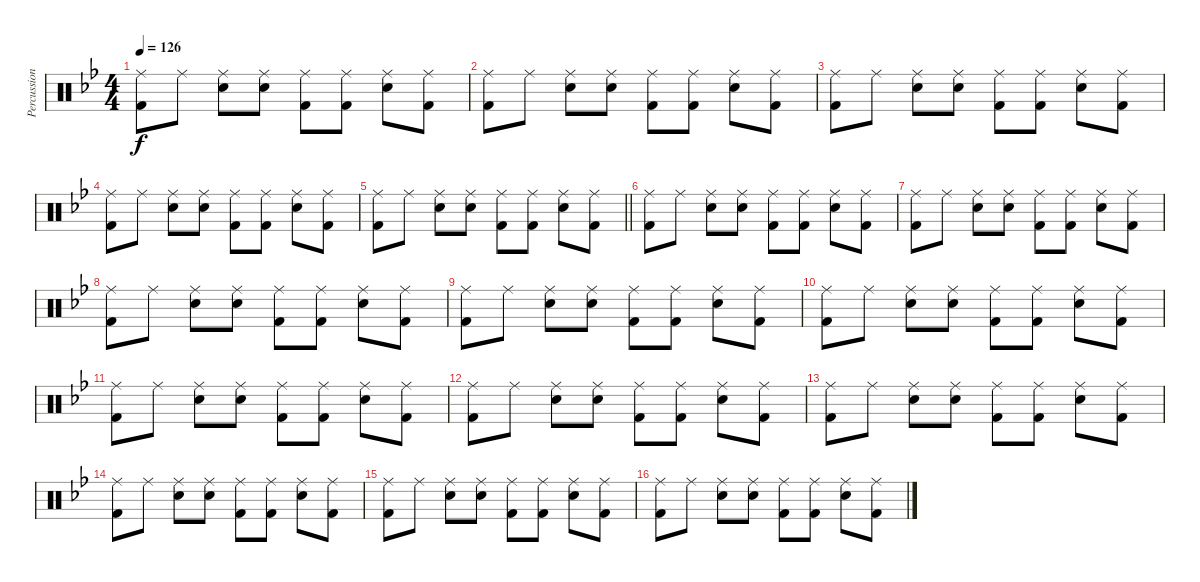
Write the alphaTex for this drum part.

\track ("Percussion" "Percussion") {instrument percussion}
\staff {score}
\articulation defaults
\ts (4 4)
\tempo 126
\clef neutral
\ks bb
("Ride (middle)" "Kick (hit) 2").8{dy f} "Ride (middle)".8 ("Ride (middle)" "Snare (hit) 2").8 ("Ride (middle)" "Snare (hit) 2").8 ("Ride (middle)" "Kick (hit) 2").8 ("Ride (middle)" "Kick (hit) 2").8 ("Ride (middle)" "Snare (hit) 2").8 ("Ride (middle)" "Kick (hit) 2").8 |
("Ride (middle)" "Kick (hit) 2").8 "Ride (middle)".8 ("Ride (middle)" "Snare (hit) 2").8 ("Ride (middle)" "Snare (hit) 2").8 ("Ride (middle)" "Kick (hit) 2").8 ("Ride (middle)" "Kick (hit) 2").8 ("Ride (middle)" "Snare (hit) 2").8 ("Ride (middle)" "Kick (hit) 2").8 |
("Ride (middle)" "Kick (hit) 2").8 "Ride (middle)".8 ("Ride (middle)" "Snare (hit) 2").8 ("Ride (middle)" "Snare (hit) 2").8 ("Ride (middle)" "Kick (hit) 2").8 ("Ride (middle)" "Kick (hit) 2").8 ("Ride (middle)" "Snare (hit) 2").8 ("Ride (middle)" "Kick (hit) 2").8 |
("Ride (middle)" "Kick (hit) 2").8 "Ride (middle)".8 ("Ride (middle)" "Snare (hit) 2").8 ("Ride (middle)" "Snare (hit) 2").8 ("Ride (middle)" "Kick (hit) 2").8 ("Ride (middle)" "Kick (hit) 2").8 ("Ride (middle)" "Snare (hit) 2").8 ("Ride (middle)" "Kick (hit) 2").8 |
\barLineRight lightlight
("Ride (middle)" "Kick (hit) 2").8 "Ride (middle)".8 ("Ride (middle)" "Snare (hit) 2").8 ("Ride (middle)" "Snare (hit) 2").8 ("Ride (middle)" "Kick (hit) 2").8 ("Ride (middle)" "Kick (hit) 2").8 ("Ride (middle)" "Snare (hit) 2").8 ("Ride (middle)" "Kick (hit) 2").8 |
("Ride (middle)" "Kick (hit) 2").8 "Ride (middle)".8 ("Ride (middle)" "Snare (hit) 2").8 ("Ride (middle)" "Snare (hit) 2").8 ("Ride (middle)" "Kick (hit) 2").8 ("Ride (middle)" "Kick (hit) 2").8 ("Ride (middle)" "Snare (hit) 2").8 ("Ride (middle)" "Kick (hit) 2").8 |
("Ride (middle)" "Kick (hit) 2").8 "Ride (middle)".8 ("Ride (middle)" "Snare (hit) 2").8 ("Ride (middle)" "Snare (hit) 2").8 ("Ride (middle)" "Kick (hit) 2").8 ("Ride (middle)" "Kick (hit) 2").8 ("Ride (middle)" "Snare (hit) 2").8 ("Ride (middle)" "Kick (hit) 2").8 |
("Ride (middle)" "Kick (hit) 2").8 "Ride (middle)".8 ("Ride (middle)" "Snare (hit) 2").8 ("Ride (middle)" "Snare (hit) 2").8 ("Ride (middle)" "Kick (hit) 2").8 ("Ride (middle)" "Kick (hit) 2").8 ("Ride (middle)" "Snare (hit) 2").8 ("Ride (middle)" "Kick (hit) 2").8 |
("Ride (middle)" "Kick (hit) 2").8 "Ride (middle)".8 ("Ride (middle)" "Snare (hit) 2").8 ("Ride (middle)" "Snare (hit) 2").8 ("Ride (middle)" "Kick (hit) 2").8 ("Ride (middle)" "Kick (hit) 2").8 ("Ride (middle)" "Snare (hit) 2").8 ("Ride (middle)" "Kick (hit) 2").8 |
("Ride (middle)" "Kick (hit) 2").8 "Ride (middle)".8 ("Ride (middle)" "Snare (hit) 2").8 ("Ride (middle)" "Snare (hit) 2").8 ("Ride (middle)" "Kick (hit) 2").8 ("Ride (middle)" "Kick (hit) 2").8 ("Ride (middle)" "Snare (hit) 2").8 ("Ride (middle)" "Kick (hit) 2").8 |
("Ride (middle)" "Kick (hit) 2").8 "Ride (middle)".8 ("Ride (middle)" "Snare (hit) 2").8 ("Ride (middle)" "Snare (hit) 2").8 ("Ride (middle)" "Kick (hit) 2").8 ("Ride (middle)" "Kick (hit) 2").8 ("Ride (middle)" "Snare (hit) 2").8 ("Ride (middle)" "Kick (hit) 2").8 |
("Ride (middle)" "Kick (hit) 2").8 "Ride (middle)".8 ("Ride (middle)" "Snare (hit) 2").8 ("Ride (middle)" "Snare (hit) 2").8 ("Ride (middle)" "Kick (hit) 2").8 ("Ride (middle)" "Kick (hit) 2").8 ("Ride (middle)" "Snare (hit) 2").8 ("Ride (middle)" "Kick (hit) 2").8 |
("Ride (middle)" "Kick (hit) 2").8 "Ride (middle)".8 ("Ride (middle)" "Snare (hit) 2").8 ("Ride (middle)" "Snare (hit) 2").8 ("Ride (middle)" "Kick (hit) 2").8 ("Ride (middle)" "Kick (hit) 2").8 ("Ride (middle)" "Snare (hit) 2").8 ("Ride (middle)" "Kick (hit) 2").8 |
("Ride (middle)" "Kick (hit) 2").8 "Ride (middle)".8 ("Ride (middle)" "Snare (hit) 2").8 ("Ride (middle)" "Snare (hit) 2").8 ("Ride (middle)" "Kick (hit) 2").8 ("Ride (middle)" "Kick (hit) 2").8 ("Ride (middle)" "Snare (hit) 2").8 ("Ride (middle)" "Kick (hit) 2").8 |
("Ride (middle)" "Kick (hit) 2").8 "Ride (middle)".8 ("Ride (middle)" "Snare (hit) 2").8 ("Ride (middle)" "Snare (hit) 2").8 ("Ride (middle)" "Kick (hit) 2").8 ("Ride (middle)" "Kick (hit) 2").8 ("Ride (middle)" "Snare (hit) 2").8 ("Ride (middle)" "Kick (hit) 2").8 |
("Ride (middle)" "Kick (hit) 2").8 "Ride (middle)".8 ("Ride (middle)" "Snare (hit) 2").8 ("Ride (middle)" "Snare (hit) 2").8 ("Ride (middle)" "Kick (hit) 2").8 ("Ride (middle)" "Kick (hit) 2").8 ("Ride (middle)" "Snare (hit) 2").8 ("Ride (middle)" "Kick (hit) 2").8
